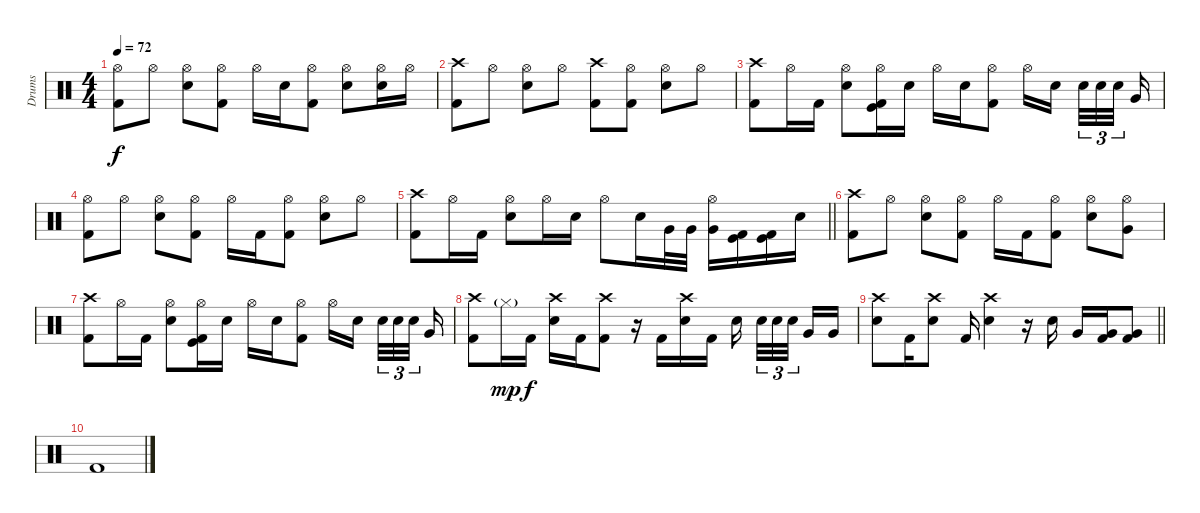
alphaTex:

\track ("Drums" "Drums") {instrument percussion}
\staff {score}
\articulation defaults
\ts (4 4)
\tempo 72
\clef neutral
\ks c
("Hi-Hat (open)" "Kick (hit) 2").8{dy f} "Hi-Hat (open)".8 ("Hi-Hat (open)" "Snare (hit) 2").8 ("Hi-Hat (open)" "Kick (hit) 2").8 "Hi-Hat (open)".16 "Snare (hit) 2".16 ("Hi-Hat (open)" "Kick (hit) 2").8 ("Hi-Hat (open)" "Snare (hit) 2").8 ("Hi-Hat (open)" "Snare (hit) 2").16 "Hi-Hat (open)".16 |
("Crash high (hit)" "Kick (hit) 2").8 "Hi-Hat (open)".8 ("Hi-Hat (open)" "Snare (hit) 2").8 "Hi-Hat (open)".8 ("Crash high (hit)" "Kick (hit) 2").8 ("Hi-Hat (open)" "Kick (hit) 2").8 ("Hi-Hat (open)" "Snare (hit) 2").8 "Hi-Hat (open)".8 |
("Crash high (hit)" "Kick (hit) 2").8 "Hi-Hat (open)".16 "Kick (hit) 2".16 ("Hi-Hat (open)" "Snare (hit) 2").8 ("Hi-Hat (open)" "Kick (hit)" "Kick (hit) 2").16 "Snare (hit) 2".16 "Hi-Hat (open)".16 "Snare (hit) 2".16 ("Hi-Hat (open)" "Kick (hit) 2").8 "Hi-Hat (open)".16 "Snare (hit) 2".16{beam splitsecondary} "Snare (hit) 2".32{tu (3 2)} "Snare (hit) 2".32{tu (3 2)} "Snare (hit) 2".32{tu (3 2) beam splitsecondary} "Very Low Tom (hit)".16 |
("Hi-Hat (open)" "Kick (hit) 2").8 "Hi-Hat (open)".8 ("Hi-Hat (open)" "Snare (hit) 2").8 ("Hi-Hat (open)" "Kick (hit) 2").8 "Hi-Hat (open)".16 "Kick (hit) 2".16 ("Hi-Hat (open)" "Kick (hit) 2").8 ("Hi-Hat (open)" "Snare (hit) 2").8 "Hi-Hat (open)".8 |
\barLineRight lightlight
("Crash high (hit)" "Kick (hit) 2").8 "Hi-Hat (open)".16 "Kick (hit) 2".16 ("Hi-Hat (open)" "Snare (hit) 2").8 "Hi-Hat (open)".16 "Snare (hit) 2".16 "Hi-Hat (open)".8 "Snare (hit) 2".16 "Very Low Tom (hit)".32 "Very Low Tom (hit)".32 ("Hi-Hat (open)" "Very Low Tom (hit)").16 ("Kick (hit)" "Kick (hit) 2").16 ("Kick (hit)" "Kick (hit) 2").16 "Snare (hit) 2".16 |
("Crash high (hit)" "Kick (hit) 2").8 "Hi-Hat (open)".8 ("Hi-Hat (open)" "Snare (hit) 2").8 ("Hi-Hat (open)" "Kick (hit) 2").8 "Hi-Hat (open)".16 "Kick (hit) 2".16 ("Hi-Hat (open)" "Kick (hit) 2").8 ("Hi-Hat (open)" "Snare (hit) 2").8 ("Hi-Hat (open)" "Very Low Tom (hit)").8 |
("Crash high (hit)" "Kick (hit) 2").8 "Hi-Hat (open)".16 "Kick (hit) 2".16 ("Hi-Hat (open)" "Snare (hit) 2").8 ("Hi-Hat (open)" "Kick (hit)" "Kick (hit) 2").16 "Snare (hit) 2".16 "Hi-Hat (open)".16 "Snare (hit) 2".16 ("Hi-Hat (open)" "Kick (hit) 2").8 "Hi-Hat (open)".16 "Snare (hit) 2".16{beam splitsecondary} "Snare (hit) 2".32{tu (3 2)} "Snare (hit) 2".32{tu (3 2)} "Snare (hit) 2".32{tu (3 2) beam splitsecondary} "Very Low Tom (hit)".16 |
("Crash high (hit)" "Kick (hit) 2").8 "Hi-Hat (closed)"{g}.16{dy mp} "Kick (hit) 2".16{dy f} ("Crash high (hit)" "Snare (hit) 2").16 "Kick (hit) 2".16 ("Crash high (hit)" "Kick (hit) 2").8 r.16 "Kick (hit) 2".16 ("Crash high (hit)" "Snare (hit) 2").16 "Kick (hit) 2".16 "Snare (hit) 2".16{beam splitsecondary} "Snare (hit) 2".32{tu (3 2)} "Snare (hit) 2".32{tu (3 2)} "Snare (hit) 2".32{tu (3 2) beam splitsecondary} "Very Low Tom (hit)".16 "Very Low Tom (hit)".16 |
\barLineRight lightlight
("Crash high (hit)" "Snare (hit) 2").8 "Kick (hit) 2".16 ("Crash high (hit)" "Snare (hit) 2").8 "Kick (hit) 2".16 ("Crash high (hit)" "Snare (hit) 2").4 r.16 "Snare (hit) 2".16 "Very Low Tom (hit)".16 ("Very Low Tom (hit)" "Kick (hit) 2").16 ("Very Low Tom (hit)" "Kick (hit) 2").8 |
"Kick (hit) 2".1
